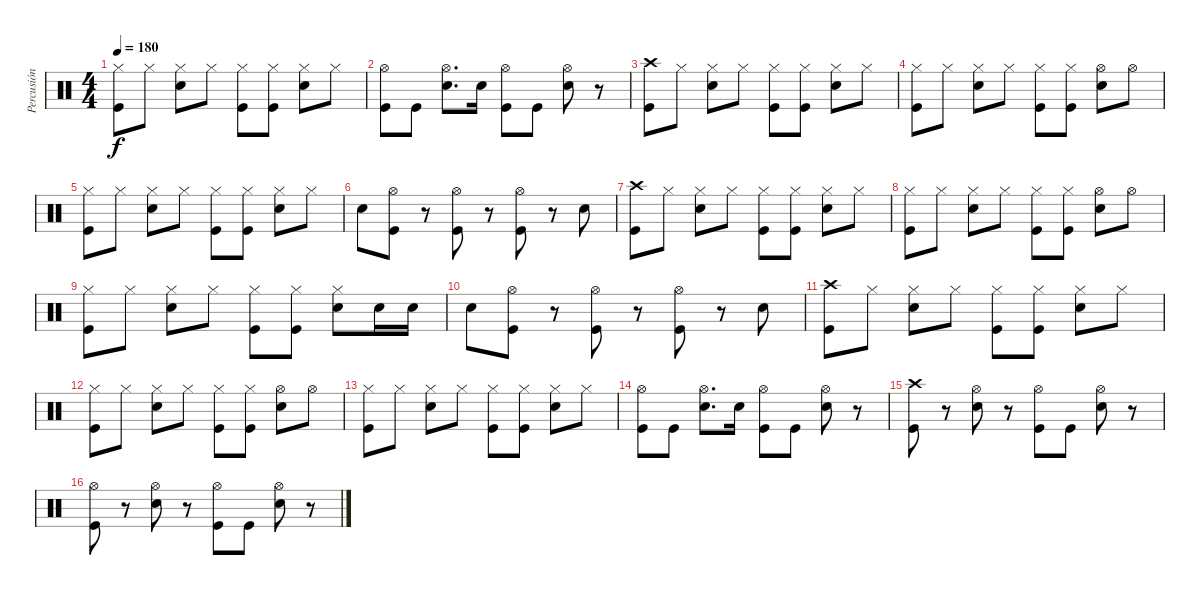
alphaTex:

\track ("Percusión" "Percusión") {instrument percussion}
\staff {score}
\articulation defaults
\ts (4 4)
\tempo 180
\clef neutral
\ks c
("Kick (hit)" "Hi-Hat (closed)").8{dy f} "Hi-Hat (closed)".8 ("Snare (hit) 2" "Hi-Hat (closed)").8 "Hi-Hat (closed)".8 ("Kick (hit)" "Hi-Hat (closed)").8 ("Kick (hit)" "Hi-Hat (closed)").8 ("Snare (hit) 2" "Hi-Hat (closed)").8 "Hi-Hat (closed)".8 |
("Kick (hit)" "Hi-Hat (open)").8 "Kick (hit)".8 ("Snare (hit) 2" "Hi-Hat (open)").8{d} "Snare (hit) 2".16 ("Kick (hit)" "Hi-Hat (open)").8 "Kick (hit)".8 ("Snare (hit) 2" "Hi-Hat (open)").8 r.8 |
("Kick (hit)" "Crash high (hit)").8 "Hi-Hat (closed)".8 ("Snare (hit) 2" "Hi-Hat (closed)").8 "Hi-Hat (closed)".8 ("Kick (hit)" "Hi-Hat (closed)").8 ("Kick (hit)" "Hi-Hat (closed)").8 ("Snare (hit) 2" "Hi-Hat (closed)").8 "Hi-Hat (closed)".8 |
("Kick (hit)" "Hi-Hat (closed)").8 "Hi-Hat (closed)".8 ("Snare (hit) 2" "Hi-Hat (closed)").8 "Hi-Hat (closed)".8 ("Kick (hit)" "Hi-Hat (closed)").8 ("Kick (hit)" "Hi-Hat (closed)").8 ("Snare (hit) 2" "Hi-Hat (open)").8 "Hi-Hat (open)".8 |
("Kick (hit)" "Hi-Hat (closed)").8 "Hi-Hat (closed)".8 ("Snare (hit) 2" "Hi-Hat (closed)").8 "Hi-Hat (closed)".8 ("Kick (hit)" "Hi-Hat (closed)").8 ("Kick (hit)" "Hi-Hat (closed)").8 ("Snare (hit) 2" "Hi-Hat (closed)").8 "Hi-Hat (closed)".8 |
"Snare (hit) 2".8 ("Kick (hit)" "Hi-Hat (open)").8 r.8 ("Kick (hit)" "Hi-Hat (open)").8 r.8 ("Kick (hit)" "Hi-Hat (open)").8 r.8 "Snare (hit) 2".8 |
("Kick (hit)" "Crash high (hit)").8 "Hi-Hat (closed)".8 ("Snare (hit) 2" "Hi-Hat (closed)").8 "Hi-Hat (closed)".8 ("Kick (hit)" "Hi-Hat (closed)").8 ("Kick (hit)" "Hi-Hat (closed)").8 ("Snare (hit) 2" "Hi-Hat (closed)").8 "Hi-Hat (closed)".8 |
("Kick (hit)" "Hi-Hat (closed)").8 "Hi-Hat (closed)".8 ("Snare (hit) 2" "Hi-Hat (closed)").8 "Hi-Hat (closed)".8 ("Kick (hit)" "Hi-Hat (closed)").8 ("Kick (hit)" "Hi-Hat (closed)").8 ("Snare (hit) 2" "Hi-Hat (open)").8 "Hi-Hat (open)".8 |
("Kick (hit)" "Hi-Hat (closed)").8 "Hi-Hat (closed)".8 ("Snare (hit) 2" "Hi-Hat (closed)").8 "Hi-Hat (closed)".8 ("Kick (hit)" "Hi-Hat (closed)").8 ("Kick (hit)" "Hi-Hat (closed)").8 ("Snare (hit) 2" "Hi-Hat (closed)").8 "Snare (hit) 2".16 "Snare (hit) 2".16 |
"Snare (hit) 2".8 ("Kick (hit)" "Hi-Hat (open)").8 r.8 ("Kick (hit)" "Hi-Hat (open)").8 r.8 ("Kick (hit)" "Hi-Hat (open)").8 r.8 "Snare (hit) 2".8 |
("Kick (hit)" "Crash high (hit)").8 "Hi-Hat (closed)".8 ("Snare (hit) 2" "Hi-Hat (closed)").8 "Hi-Hat (closed)".8 ("Kick (hit)" "Hi-Hat (closed)").8 ("Kick (hit)" "Hi-Hat (closed)").8 ("Snare (hit) 2" "Hi-Hat (closed)").8 "Hi-Hat (closed)".8 |
("Kick (hit)" "Hi-Hat (closed)").8 "Hi-Hat (closed)".8 ("Snare (hit) 2" "Hi-Hat (closed)").8 "Hi-Hat (closed)".8 ("Kick (hit)" "Hi-Hat (closed)").8 ("Kick (hit)" "Hi-Hat (closed)").8 ("Snare (hit) 2" "Hi-Hat (open)").8 "Hi-Hat (open)".8 |
("Kick (hit)" "Hi-Hat (closed)").8 "Hi-Hat (closed)".8 ("Snare (hit) 2" "Hi-Hat (closed)").8 "Hi-Hat (closed)".8 ("Kick (hit)" "Hi-Hat (closed)").8 ("Kick (hit)" "Hi-Hat (closed)").8 ("Snare (hit) 2" "Hi-Hat (closed)").8 "Hi-Hat (closed)".8 |
("Kick (hit)" "Hi-Hat (open)").8 "Kick (hit)".8 ("Snare (hit) 2" "Hi-Hat (open)").8{d} "Snare (hit) 2".16 ("Kick (hit)" "Hi-Hat (open)").8 "Kick (hit)".8 ("Snare (hit) 2" "Hi-Hat (open)").8 r.8 |
("Kick (hit)" "Crash high (hit)").8 r.8 ("Snare (hit) 2" "Hi-Hat (open)").8 r.8 ("Kick (hit)" "Hi-Hat (open)").8 "Kick (hit)".8 ("Snare (hit) 2" "Hi-Hat (open)").8 r.8 |
("Kick (hit)" "Hi-Hat (open)").8 r.8 ("Snare (hit) 2" "Hi-Hat (open)").8 r.8 ("Kick (hit)" "Hi-Hat (open)").8 "Kick (hit)".8 ("Snare (hit) 2" "Hi-Hat (open)").8 r.8
